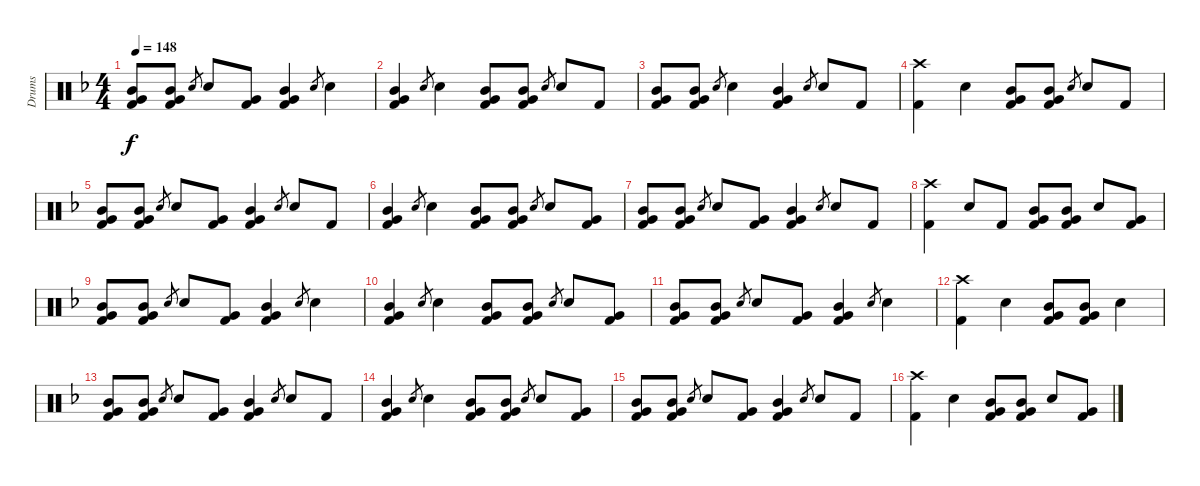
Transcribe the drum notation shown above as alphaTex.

\track ("Drums" "Drums") {instrument percussion}
\staff {score}
\articulation defaults
\ts (4 4)
\tempo 148
\clef neutral
\ks f
("Mid Tom (hit)" "Very Low Tom (hit)" "Kick (hit) 2").8{dy f} ("Mid Tom (hit)" "Very Low Tom (hit)" "Kick (hit) 2").8 "Snare (hit) 2".8{gr} "Snare (hit) 2".8 ("Very Low Tom (hit)" "Kick (hit) 2").8 ("Mid Tom (hit)" "Very Low Tom (hit)" "Kick (hit) 2").4 "Snare (hit) 2".8{gr} "Snare (hit) 2".4 |
("Mid Tom (hit)" "Very Low Tom (hit)" "Kick (hit) 2").4 "Snare (hit) 2".8{gr} "Snare (hit) 2".4 ("Mid Tom (hit)" "Very Low Tom (hit)" "Kick (hit) 2").8 ("Mid Tom (hit)" "Very Low Tom (hit)" "Kick (hit) 2").8 "Snare (hit) 2".8{gr} "Snare (hit) 2".8 "Kick (hit) 2".8 |
("Mid Tom (hit)" "Very Low Tom (hit)" "Kick (hit) 2").8 ("Mid Tom (hit)" "Very Low Tom (hit)" "Kick (hit) 2").8 "Snare (hit) 2".8{gr} "Snare (hit) 2".4 ("Mid Tom (hit)" "Very Low Tom (hit)" "Kick (hit) 2").4 "Snare (hit) 2".8{gr} "Snare (hit) 2".8 "Kick (hit) 2".8 |
("Crash high (hit)" "Kick (hit) 2").4 "Snare (hit) 2".4 ("Mid Tom (hit)" "Very Low Tom (hit)" "Kick (hit) 2").8 ("Mid Tom (hit)" "Very Low Tom (hit)" "Kick (hit) 2").8 "Snare (hit) 2".8{gr} "Snare (hit) 2".8 "Kick (hit) 2".8 |
("Mid Tom (hit)" "Very Low Tom (hit)" "Kick (hit) 2").8 ("Mid Tom (hit)" "Very Low Tom (hit)" "Kick (hit) 2").8 "Snare (hit) 2".8{gr} "Snare (hit) 2".8 ("Very Low Tom (hit)" "Kick (hit) 2").8 ("Mid Tom (hit)" "Very Low Tom (hit)" "Kick (hit) 2").4 "Snare (hit) 2".8{gr} "Snare (hit) 2".8 "Kick (hit) 2".8 |
("Mid Tom (hit)" "Very Low Tom (hit)" "Kick (hit) 2").4 "Snare (hit) 2".8{gr} "Snare (hit) 2".4 ("Mid Tom (hit)" "Very Low Tom (hit)" "Kick (hit) 2").8 ("Mid Tom (hit)" "Very Low Tom (hit)" "Kick (hit) 2").8 "Snare (hit) 2".8{gr} "Snare (hit) 2".8 ("Very Low Tom (hit)" "Kick (hit) 2").8 |
("Mid Tom (hit)" "Very Low Tom (hit)" "Kick (hit) 2").8 ("Mid Tom (hit)" "Very Low Tom (hit)" "Kick (hit) 2").8 "Snare (hit) 2".8{gr} "Snare (hit) 2".8 ("Very Low Tom (hit)" "Kick (hit) 2").8 ("Mid Tom (hit)" "Very Low Tom (hit)" "Kick (hit) 2").4 "Snare (hit) 2".8{gr} "Snare (hit) 2".8 "Kick (hit) 2".8 |
("Crash high (hit)" "Kick (hit) 2").4 "Snare (hit) 2".8 "Kick (hit) 2".8 ("Mid Tom (hit)" "Very Low Tom (hit)" "Kick (hit) 2").8 ("Mid Tom (hit)" "Very Low Tom (hit)" "Kick (hit) 2").8 "Snare (hit) 2".8 ("Very Low Tom (hit)" "Kick (hit) 2").8 |
("Mid Tom (hit)" "Very Low Tom (hit)" "Kick (hit) 2").8 ("Mid Tom (hit)" "Very Low Tom (hit)" "Kick (hit) 2").8 "Snare (hit) 2".8{gr} "Snare (hit) 2".8 ("Very Low Tom (hit)" "Kick (hit) 2").8 ("Mid Tom (hit)" "Very Low Tom (hit)" "Kick (hit) 2").4 "Snare (hit) 2".8{gr} "Snare (hit) 2".4 |
("Mid Tom (hit)" "Very Low Tom (hit)" "Kick (hit) 2").4 "Snare (hit) 2".8{gr} "Snare (hit) 2".4 ("Mid Tom (hit)" "Very Low Tom (hit)" "Kick (hit) 2").8 ("Mid Tom (hit)" "Very Low Tom (hit)" "Kick (hit) 2").8 "Snare (hit) 2".8{gr} "Snare (hit) 2".8 ("Very Low Tom (hit)" "Kick (hit) 2").8 |
("Mid Tom (hit)" "Very Low Tom (hit)" "Kick (hit) 2").8 ("Mid Tom (hit)" "Very Low Tom (hit)" "Kick (hit) 2").8 "Snare (hit) 2".8{gr} "Snare (hit) 2".8 ("Very Low Tom (hit)" "Kick (hit) 2").8 ("Mid Tom (hit)" "Very Low Tom (hit)" "Kick (hit) 2").4 "Snare (hit) 2".8{gr} "Snare (hit) 2".4 |
("Crash high (hit)" "Kick (hit) 2").4 "Snare (hit) 2".4 ("Mid Tom (hit)" "Very Low Tom (hit)" "Kick (hit) 2").8 ("Mid Tom (hit)" "Very Low Tom (hit)" "Kick (hit) 2").8 "Snare (hit) 2".4 |
("Mid Tom (hit)" "Very Low Tom (hit)" "Kick (hit) 2").8 ("Mid Tom (hit)" "Very Low Tom (hit)" "Kick (hit) 2").8 "Snare (hit) 2".8{gr} "Snare (hit) 2".8 ("Very Low Tom (hit)" "Kick (hit) 2").8 ("Mid Tom (hit)" "Very Low Tom (hit)" "Kick (hit) 2").4 "Snare (hit) 2".8{gr} "Snare (hit) 2".8 "Kick (hit) 2".8 |
("Mid Tom (hit)" "Very Low Tom (hit)" "Kick (hit) 2").4 "Snare (hit) 2".8{gr} "Snare (hit) 2".4 ("Mid Tom (hit)" "Very Low Tom (hit)" "Kick (hit) 2").8 ("Mid Tom (hit)" "Very Low Tom (hit)" "Kick (hit) 2").8 "Snare (hit) 2".8{gr} "Snare (hit) 2".8 ("Very Low Tom (hit)" "Kick (hit) 2").8 |
("Mid Tom (hit)" "Very Low Tom (hit)" "Kick (hit) 2").8 ("Mid Tom (hit)" "Very Low Tom (hit)" "Kick (hit) 2").8 "Snare (hit) 2".8{gr} "Snare (hit) 2".8 ("Very Low Tom (hit)" "Kick (hit) 2").8 ("Mid Tom (hit)" "Very Low Tom (hit)" "Kick (hit) 2").4 "Snare (hit) 2".8{gr} "Snare (hit) 2".8 "Kick (hit) 2".8 |
("Crash high (hit)" "Kick (hit) 2").4 "Snare (hit) 2".4 ("Mid Tom (hit)" "Very Low Tom (hit)" "Kick (hit) 2").8 ("Mid Tom (hit)" "Very Low Tom (hit)" "Kick (hit) 2").8 "Snare (hit) 2".8 ("Very Low Tom (hit)" "Kick (hit) 2").8
